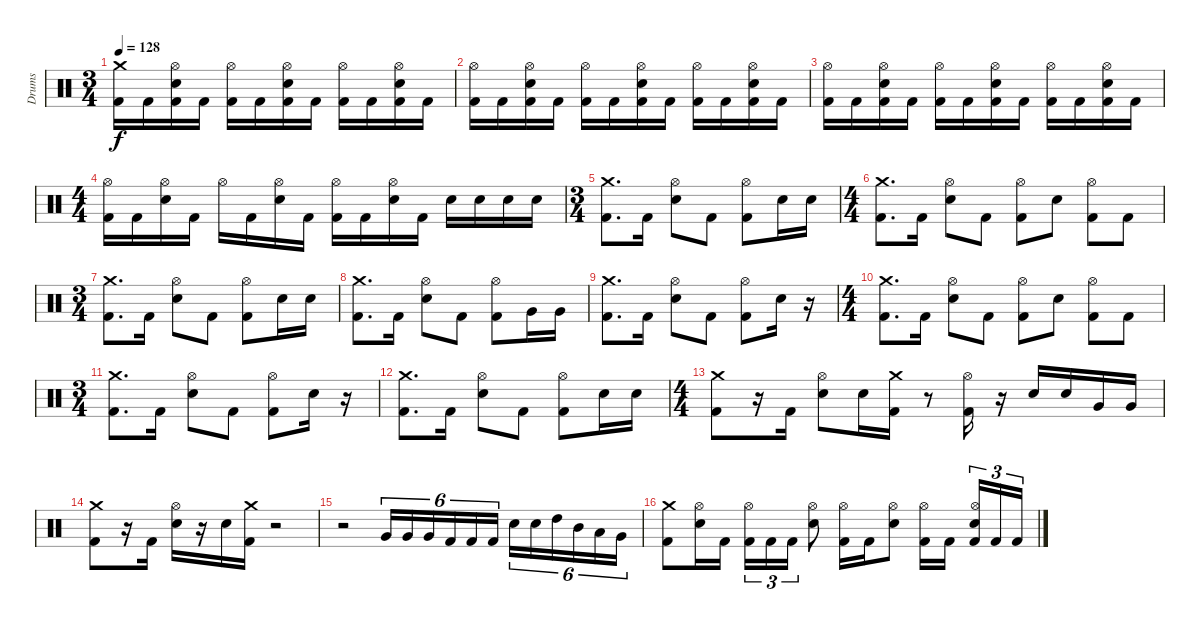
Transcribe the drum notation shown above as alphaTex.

\track ("Drums" "Drums") {instrument percussion}
\staff {score}
\articulation defaults
\ts (3 4)
\tempo 128
\clef neutral
\ks c
("Crash medium (hit)" "Kick (hit) 2").16{dy f} "Kick (hit) 2".16 ("Kick (hit) 2" "Hi-Hat (open)" "Electric Snare (hit)").16 "Kick (hit) 2".16 ("Kick (hit) 2" "Hi-Hat (open)").16 "Kick (hit) 2".16 ("Kick (hit) 2" "Hi-Hat (open)" "Electric Snare (hit)").16 "Kick (hit) 2".16 ("Kick (hit) 2" "Hi-Hat (open)").16 "Kick (hit) 2".16 ("Kick (hit) 2" "Hi-Hat (open)" "Electric Snare (hit)").16 "Kick (hit) 2".16 |
("Hi-Hat (open)" "Kick (hit) 2").16 "Kick (hit) 2".16 ("Kick (hit) 2" "Hi-Hat (open)" "Electric Snare (hit)").16 "Kick (hit) 2".16 ("Kick (hit) 2" "Hi-Hat (open)").16 "Kick (hit) 2".16 ("Kick (hit) 2" "Hi-Hat (open)" "Electric Snare (hit)").16 "Kick (hit) 2".16 ("Kick (hit) 2" "Hi-Hat (open)").16 "Kick (hit) 2".16 ("Kick (hit) 2" "Hi-Hat (open)" "Electric Snare (hit)").16 "Kick (hit) 2".16 |
("Hi-Hat (open)" "Kick (hit) 2").16 "Kick (hit) 2".16 ("Kick (hit) 2" "Hi-Hat (open)" "Electric Snare (hit)").16 "Kick (hit) 2".16 ("Kick (hit) 2" "Hi-Hat (open)").16 "Kick (hit) 2".16 ("Kick (hit) 2" "Hi-Hat (open)" "Electric Snare (hit)").16 "Kick (hit) 2".16 ("Kick (hit) 2" "Hi-Hat (open)").16 "Kick (hit) 2".16 ("Kick (hit) 2" "Hi-Hat (open)" "Electric Snare (hit)").16 "Kick (hit) 2".16 |
\ts (4 4)
("Hi-Hat (open)" "Kick (hit) 2").16 "Kick (hit) 2".16 ("Hi-Hat (open)" "Electric Snare (hit)").16 "Kick (hit) 2".16 "Hi-Hat (open)".16 "Kick (hit) 2".16 ("Hi-Hat (open)" "Electric Snare (hit)").16 "Kick (hit) 2".16 ("Hi-Hat (open)" "Kick (hit) 2").16 "Kick (hit) 2".16 ("Hi-Hat (open)" "Electric Snare (hit)").16 "Kick (hit) 2".16 "Electric Snare (hit)".16 "Electric Snare (hit)".16 "Electric Snare (hit)".16 "Electric Snare (hit)".16 |
\ts (3 4)
("Kick (hit) 2" "Crash medium (hit)").8{d} "Kick (hit) 2".16 ("Electric Snare (hit)" "Hi-Hat (open)").8 "Kick (hit) 2".8 ("Kick (hit) 2" "Hi-Hat (open)").8 "Electric Snare (hit)".16 "Electric Snare (hit)".16 |
\ts (4 4)
("Kick (hit) 2" "Crash medium (hit)").8{d} "Kick (hit) 2".16 ("Electric Snare (hit)" "Hi-Hat (open)").8 "Kick (hit) 2".8 ("Kick (hit) 2" "Hi-Hat (open)").8 "Electric Snare (hit)".8 ("Kick (hit) 2" "Hi-Hat (open)").8 "Kick (hit) 2".8 |
\ts (3 4)
("Kick (hit) 2" "Crash medium (hit)").8{d} "Kick (hit) 2".16 ("Electric Snare (hit)" "Hi-Hat (open)").8 "Kick (hit) 2".8 ("Kick (hit) 2" "Hi-Hat (open)").8 "Electric Snare (hit)".16 "Electric Snare (hit)".16 |
("Kick (hit) 2" "Crash medium (hit)").8{d} "Kick (hit) 2".16 ("Electric Snare (hit)" "Hi-Hat (open)").8 "Kick (hit) 2".8 ("Kick (hit) 2" "Hi-Hat (open)").8 "Very Low Tom (hit)".16 "Very Low Tom (hit)".16 |
("Kick (hit) 2" "Crash medium (hit)").8{d} "Kick (hit) 2".16 ("Electric Snare (hit)" "Hi-Hat (open)").8 "Kick (hit) 2".8 ("Kick (hit) 2" "Hi-Hat (open)").8 "Electric Snare (hit)".16 r.16 |
\ts (4 4)
("Kick (hit) 2" "Crash medium (hit)").8{d} "Kick (hit) 2".16 ("Electric Snare (hit)" "Hi-Hat (open)").8 "Kick (hit) 2".8 ("Kick (hit) 2" "Hi-Hat (open)").8 "Electric Snare (hit)".8 ("Kick (hit) 2" "Hi-Hat (open)").8 "Kick (hit) 2".8 |
\ts (3 4)
("Kick (hit) 2" "Crash medium (hit)").8{d} "Kick (hit) 2".16 ("Electric Snare (hit)" "Hi-Hat (open)").8 "Kick (hit) 2".8 ("Kick (hit) 2" "Hi-Hat (open)").8 "Electric Snare (hit)".16 r.16 |
("Kick (hit) 2" "Crash medium (hit)").8{d} "Kick (hit) 2".16 ("Electric Snare (hit)" "Hi-Hat (open)").8 "Kick (hit) 2".8 ("Kick (hit) 2" "Hi-Hat (open)").8 "Electric Snare (hit)".16 "Electric Snare (hit)".16 |
\ts (4 4)
("Crash medium (hit)" "Kick (hit) 2").8 r.16 "Kick (hit) 2".16 ("Hi-Hat (open)" "Electric Snare (hit)").8 "Electric Snare (hit)".16 ("Crash medium (hit)" "Kick (hit) 2").16 r.8 ("Hi-Hat (open)" "Kick (hit) 2").16 r.16 "Electric Snare (hit)".16 "Electric Snare (hit)".16 "Very Low Tom (hit)".16 "Very Low Tom (hit)".16 |
("Crash medium (hit)" "Kick (hit) 2").8 r.16 "Kick (hit) 2".16 ("Hi-Hat (open)" "Electric Snare (hit)").16 r.16 "Electric Snare (hit)".16 ("Crash medium (hit)" "Kick (hit) 2").16 r.2 |
r.2 "Very Low Tom (hit)".16{tu (6 4)} "Very Low Tom (hit)".16{tu (6 4)} "Very Low Tom (hit)".16{tu (6 4)} "Kick (hit) 2".16{tu (6 4)} "Kick (hit) 2".16{tu (6 4)} "Kick (hit) 2".16{tu (6 4)} "Electric Snare (hit)".16{tu (6 4)} "Electric Snare (hit)".16{tu (6 4)} "High Tom (hit)".16{tu (6 4)} "Mid Tom (hit)".16{tu (6 4)} "Low Tom (hit)".16{tu (6 4)} "Very Low Tom (hit)".16{tu (6 4)} |
("Kick (hit) 2" "Crash medium (hit)").8 ("Electric Snare (hit)" "Hi-Hat (open)").16 "Kick (hit) 2".16 ("Kick (hit) 2" "Hi-Hat (open)").16{tu (3 2)} "Kick (hit) 2".16{tu (3 2)} "Kick (hit) 2".16{tu (3 2)} ("Electric Snare (hit)" "Hi-Hat (open)").8 ("Kick (hit) 2" "Hi-Hat (open)").16 "Kick (hit) 2".16 ("Electric Snare (hit)" "Hi-Hat (open)").8 ("Kick (hit) 2" "Hi-Hat (open)").16 "Kick (hit) 2".16 ("Kick (hit) 2" "Electric Snare (hit)" "Hi-Hat (open)").16{tu (3 2)} "Kick (hit) 2".16{tu (3 2)} "Kick (hit) 2".16{tu (3 2)}
